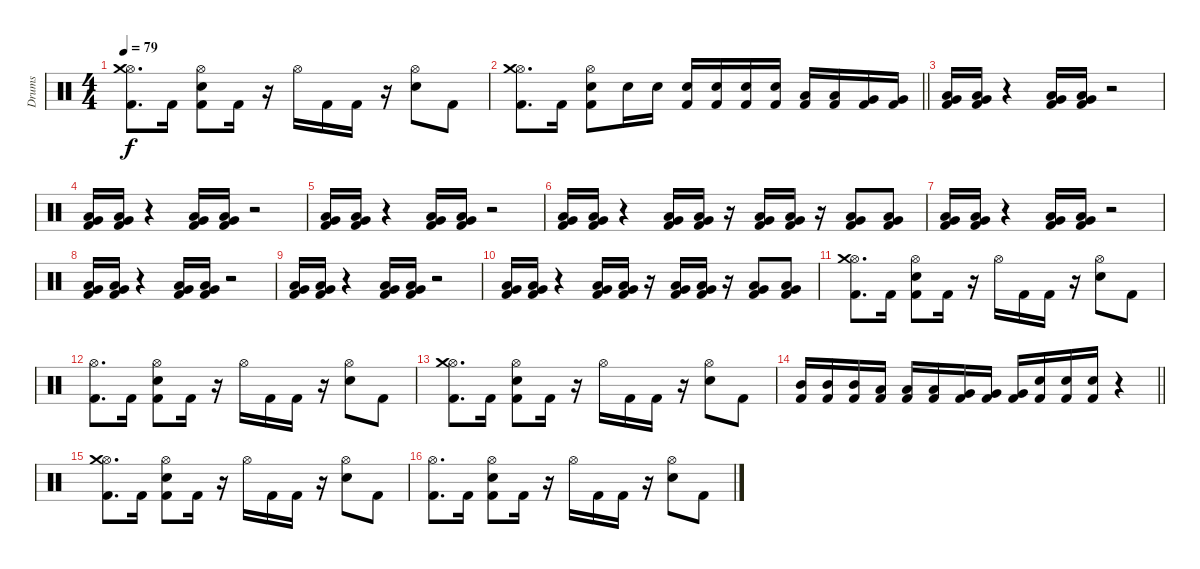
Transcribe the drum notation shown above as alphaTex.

\track ("Drums" "Drums") {instrument percussion}
\staff {score}
\articulation defaults
\ts (4 4)
\tempo 79
\clef neutral
\ks c
("Hi-Hat (open)" "Crash medium (hit)" "Kick (hit) 2").8{d dy f} "Kick (hit) 2".16 ("Hi-Hat (open)" "Electric Snare (hit)" "Kick (hit) 2").8 "Kick (hit) 2".16 r.16 "Hi-Hat (open)".16 "Kick (hit) 2".16 "Kick (hit) 2".16 r.16 ("Hi-Hat (open)" "Electric Snare (hit)").8 "Kick (hit) 2".8 |
\barLineRight lightlight
("Hi-Hat (open)" "Crash medium (hit)" "Kick (hit) 2").8{d} "Kick (hit) 2".16 ("Hi-Hat (open)" "Electric Snare (hit)" "Kick (hit) 2").8 "Electric Snare (hit)".16 "Electric Snare (hit)".16 ("Electric Snare (hit)" "Kick (hit) 2").16 ("Electric Snare (hit)" "Kick (hit) 2").16 ("Electric Snare (hit)" "Kick (hit) 2").16 ("Electric Snare (hit)" "Kick (hit) 2").16 ("Low Tom (hit)" "Kick (hit) 2").16 ("Low Tom (hit)" "Kick (hit) 2").16 ("Very Low Tom (hit)" "Kick (hit) 2").16 ("Very Low Tom (hit)" "Kick (hit) 2").16 |
("Low Tom (hit)" "Very Low Tom (hit)" "Kick (hit) 2").16 ("Low Tom (hit)" "Very Low Tom (hit)" "Kick (hit) 2").16 r.4 ("Low Tom (hit)" "Very Low Tom (hit)" "Kick (hit) 2").16 ("Low Tom (hit)" "Very Low Tom (hit)" "Kick (hit) 2").16 r.2 |
("Low Tom (hit)" "Very Low Tom (hit)" "Kick (hit) 2").16 ("Low Tom (hit)" "Very Low Tom (hit)" "Kick (hit) 2").16 r.4 ("Low Tom (hit)" "Very Low Tom (hit)" "Kick (hit) 2").16 ("Low Tom (hit)" "Very Low Tom (hit)" "Kick (hit) 2").16 r.2 |
("Low Tom (hit)" "Very Low Tom (hit)" "Kick (hit) 2").16 ("Low Tom (hit)" "Very Low Tom (hit)" "Kick (hit) 2").16 r.4 ("Low Tom (hit)" "Very Low Tom (hit)" "Kick (hit) 2").16 ("Low Tom (hit)" "Very Low Tom (hit)" "Kick (hit) 2").16 r.2 |
("Low Tom (hit)" "Very Low Tom (hit)" "Kick (hit) 2").16 ("Low Tom (hit)" "Very Low Tom (hit)" "Kick (hit) 2").16 r.4 ("Low Tom (hit)" "Very Low Tom (hit)" "Kick (hit) 2").16 ("Low Tom (hit)" "Very Low Tom (hit)" "Kick (hit) 2").16 r.16 ("Low Tom (hit)" "Very Low Tom (hit)" "Kick (hit) 2").16 ("Low Tom (hit)" "Very Low Tom (hit)" "Kick (hit) 2").16 r.16 ("Low Tom (hit)" "Very Low Tom (hit)" "Kick (hit) 2").8 ("Low Tom (hit)" "Very Low Tom (hit)" "Kick (hit) 2").8 |
("Low Tom (hit)" "Very Low Tom (hit)" "Kick (hit) 2").16 ("Low Tom (hit)" "Very Low Tom (hit)" "Kick (hit) 2").16 r.4 ("Low Tom (hit)" "Very Low Tom (hit)" "Kick (hit) 2").16 ("Low Tom (hit)" "Very Low Tom (hit)" "Kick (hit) 2").16 r.2 |
("Low Tom (hit)" "Very Low Tom (hit)" "Kick (hit) 2").16 ("Low Tom (hit)" "Very Low Tom (hit)" "Kick (hit) 2").16 r.4 ("Low Tom (hit)" "Very Low Tom (hit)" "Kick (hit) 2").16 ("Low Tom (hit)" "Very Low Tom (hit)" "Kick (hit) 2").16 r.2 |
("Low Tom (hit)" "Very Low Tom (hit)" "Kick (hit) 2").16 ("Low Tom (hit)" "Very Low Tom (hit)" "Kick (hit) 2").16 r.4 ("Low Tom (hit)" "Very Low Tom (hit)" "Kick (hit) 2").16 ("Low Tom (hit)" "Very Low Tom (hit)" "Kick (hit) 2").16 r.2 |
("Low Tom (hit)" "Very Low Tom (hit)" "Kick (hit) 2").16 ("Low Tom (hit)" "Very Low Tom (hit)" "Kick (hit) 2").16 r.4 ("Low Tom (hit)" "Very Low Tom (hit)" "Kick (hit) 2").16 ("Low Tom (hit)" "Very Low Tom (hit)" "Kick (hit) 2").16 r.16 ("Low Tom (hit)" "Very Low Tom (hit)" "Kick (hit) 2").16 ("Low Tom (hit)" "Very Low Tom (hit)" "Kick (hit) 2").16 r.16 ("Low Tom (hit)" "Very Low Tom (hit)" "Kick (hit) 2").8 ("Low Tom (hit)" "Very Low Tom (hit)" "Kick (hit) 2").8 |
("Hi-Hat (open)" "Crash medium (hit)" "Kick (hit) 2").8{d} "Kick (hit) 2".16 ("Hi-Hat (open)" "Electric Snare (hit)" "Kick (hit) 2").8 "Kick (hit) 2".16 r.16 "Hi-Hat (open)".16 "Kick (hit) 2".16 "Kick (hit) 2".16 r.16 ("Hi-Hat (open)" "Electric Snare (hit)").8 "Kick (hit) 2".8 |
("Hi-Hat (open)" "Kick (hit) 2").8{d} "Kick (hit) 2".16 ("Hi-Hat (open)" "Electric Snare (hit)" "Kick (hit) 2").8 "Kick (hit) 2".16 r.16 "Hi-Hat (open)".16 "Kick (hit) 2".16 "Kick (hit) 2".16 r.16 ("Hi-Hat (open)" "Electric Snare (hit)").8 "Kick (hit) 2".8 |
("Hi-Hat (open)" "Crash medium (hit)" "Kick (hit) 2").8{d} "Kick (hit) 2".16 ("Hi-Hat (open)" "Electric Snare (hit)" "Kick (hit) 2").8 "Kick (hit) 2".16 r.16 "Hi-Hat (open)".16 "Kick (hit) 2".16 "Kick (hit) 2".16 r.16 ("Hi-Hat (open)" "Electric Snare (hit)").8 "Kick (hit) 2".8 |
\barLineRight lightlight
("Mid Tom (hit)" "Kick (hit) 2").16 ("Mid Tom (hit)" "Kick (hit) 2").16 ("Mid Tom (hit)" "Kick (hit) 2").16 ("Low Tom (hit)" "Kick (hit) 2").16 ("Low Tom (hit)" "Kick (hit) 2").16 ("Low Tom (hit)" "Kick (hit) 2").16 ("Very Low Tom (hit)" "Kick (hit) 2").16 ("Very Low Tom (hit)" "Kick (hit) 2").16 ("Very Low Tom (hit)" "Kick (hit) 2").16 ("Electric Snare (hit)" "Kick (hit) 2").16 ("Electric Snare (hit)" "Kick (hit) 2").16 ("Electric Snare (hit)" "Kick (hit) 2").16 r.4 |
("Hi-Hat (open)" "Crash medium (hit)" "Kick (hit) 2").8{d} "Kick (hit) 2".16 ("Hi-Hat (open)" "Electric Snare (hit)" "Kick (hit) 2").8 "Kick (hit) 2".16 r.16 "Hi-Hat (open)".16 "Kick (hit) 2".16 "Kick (hit) 2".16 r.16 ("Hi-Hat (open)" "Electric Snare (hit)").8 "Kick (hit) 2".8 |
("Hi-Hat (open)" "Kick (hit) 2").8{d} "Kick (hit) 2".16 ("Hi-Hat (open)" "Electric Snare (hit)" "Kick (hit) 2").8 "Kick (hit) 2".16 r.16 "Hi-Hat (open)".16 "Kick (hit) 2".16 "Kick (hit) 2".16 r.16 ("Hi-Hat (open)" "Electric Snare (hit)").8 "Kick (hit) 2".8
